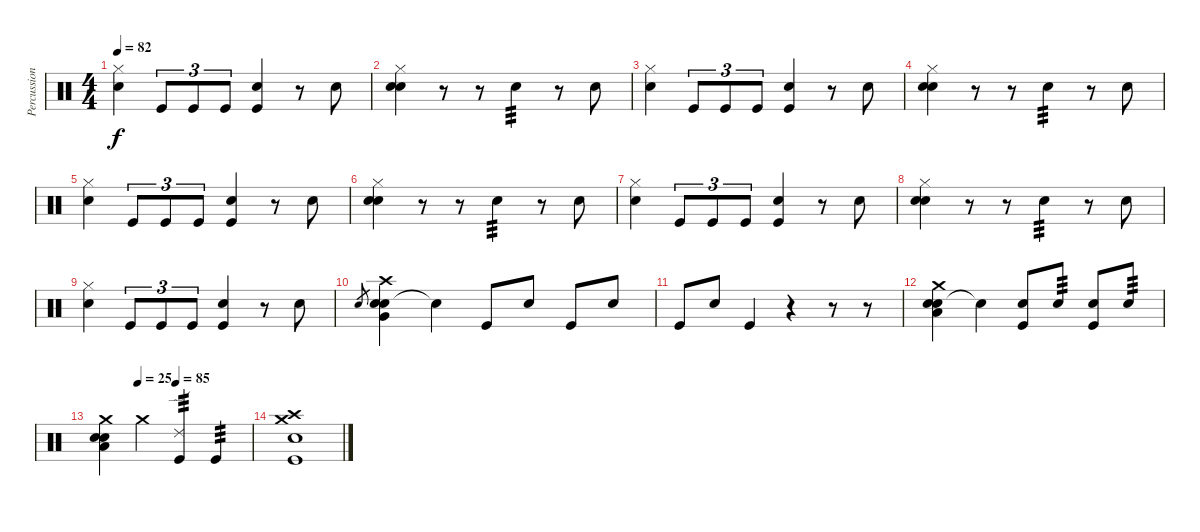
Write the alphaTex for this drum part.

\track ("Percussion" "Percussion") {instrument percussion}
\staff {score}
\articulation defaults
\ts (4 4)
\tempo 82
\clef neutral
\ks c
("Snare (hit) 2" "Hi-Hat (closed)").4{dy f} "Kick (hit)".8{tu (3 2)} "Kick (hit)".8{tu (3 2)} "Kick (hit)".8{tu (3 2)} ("Snare (hit) 2" "Kick (hit)").4 r.8 "Snare (hit) 2".8 |
("Snare (hit) 2" "Hi-Hat (closed)" "Electric Snare (hit)").4 r.8 r.8 "Snare (hit) 2".4{tp 3} r.8 "Snare (hit) 2".8 |
("Snare (hit) 2" "Hi-Hat (closed)").4 "Kick (hit)".8{tu (3 2)} "Kick (hit)".8{tu (3 2)} "Kick (hit)".8{tu (3 2)} ("Snare (hit) 2" "Kick (hit)").4 r.8 "Snare (hit) 2".8 |
("Snare (hit) 2" "Hi-Hat (closed)" "Electric Snare (hit)").4 r.8 r.8 "Snare (hit) 2".4{tp 3} r.8 "Snare (hit) 2".8 |
("Snare (hit) 2" "Hi-Hat (closed)").4 "Kick (hit)".8{tu (3 2)} "Kick (hit)".8{tu (3 2)} "Kick (hit)".8{tu (3 2)} ("Snare (hit) 2" "Kick (hit)").4 r.8 "Snare (hit) 2".8 |
("Snare (hit) 2" "Hi-Hat (closed)" "Electric Snare (hit)").4 r.8 r.8 "Snare (hit) 2".4{tp 3} r.8 "Snare (hit) 2".8 |
("Snare (hit) 2" "Hi-Hat (closed)").4 "Kick (hit)".8{tu (3 2)} "Kick (hit)".8{tu (3 2)} "Kick (hit)".8{tu (3 2)} ("Snare (hit) 2" "Kick (hit)").4 r.8 "Snare (hit) 2".8 |
("Snare (hit) 2" "Hi-Hat (closed)" "Electric Snare (hit)").4 r.8 r.8 "Snare (hit) 2".4{tp 3} r.8 "Snare (hit) 2".8 |
("Snare (hit) 2" "Hi-Hat (closed)").4 "Kick (hit)".8{tu (3 2)} "Kick (hit)".8{tu (3 2)} "Kick (hit)".8{tu (3 2)} ("Snare (hit) 2" "Kick (hit)").4 r.8 "Snare (hit) 2".8 |
"Snare (hit) 2".8{gr} ("Snare (hit) 2" "Electric Snare (hit)" "Very Low Tom (hit)" "Crash high (hit)").4 "Snare (hit)"{t}.4 "Kick (hit)".8 "Electric Snare (hit)".8 "Kick (hit)".8 "Electric Snare (hit)".8 |
"Kick (hit)".8 "Electric Snare (hit)".8 "Kick (hit)".4 r.4 r.8 r.8 |
("Snare (hit) 2" "Electric Snare (hit)" "Low Floor Tom (hit)" "Crash medium (hit)").4 "Snare (hit)"{t}.4 ("Snare (hit) 2" "Kick (hit)").8 "Electric Snare (hit)".8{tp 3} ("Snare (hit) 2" "Kick (hit)").8 "Electric Snare (hit)".8{tp 3} |
\tempo (25 0.25)
\tempo (85 0.5)
("Snare (hit) 2" "Electric Snare (hit)" "Low Floor Tom (hit)" "Crash medium (hit)").4 "Crash medium (hit)".4 ("Kick (hit)" "Ride (edge) 2").4{tp 3} "Kick (hit)".4{tp 3} |
("Kick (hit)" "Electric Snare (hit)" "Crash medium (hit)" "Crash high (hit)").1
